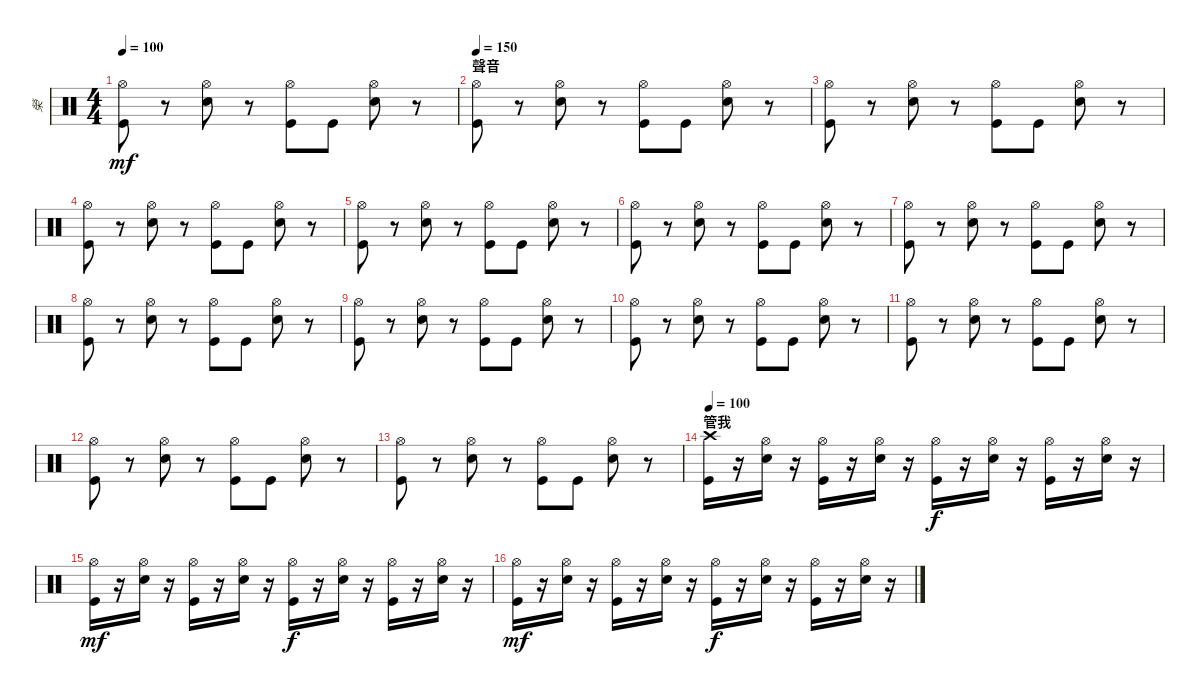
\track ("榮" "榮") {instrument percussion}
\staff {score}
\articulation defaults
\ts (4 4)
\tempo 100
\clef neutral
\ks c
("Hi-Hat (open)" "Kick (hit)").8{dy mf} r.8 ("Hi-Hat (open)" "Snare (hit) 2").8 r.8 ("Hi-Hat (open)" "Kick (hit)").8 "Kick (hit)".8 ("Hi-Hat (open)" "Snare (hit) 2").8 r.8 |
\section ("" "聲音")
\tempo 150
("Hi-Hat (open)" "Kick (hit)").8 r.8 ("Hi-Hat (open)" "Snare (hit) 2").8 r.8 ("Hi-Hat (open)" "Kick (hit)").8 "Kick (hit)".8 ("Hi-Hat (open)" "Snare (hit) 2").8 r.8 |
("Hi-Hat (open)" "Kick (hit)").8 r.8 ("Hi-Hat (open)" "Snare (hit) 2").8 r.8 ("Hi-Hat (open)" "Kick (hit)").8 "Kick (hit)".8 ("Hi-Hat (open)" "Snare (hit) 2").8 r.8 |
("Hi-Hat (open)" "Kick (hit)").8 r.8 ("Hi-Hat (open)" "Snare (hit) 2").8 r.8 ("Hi-Hat (open)" "Kick (hit)").8 "Kick (hit)".8 ("Hi-Hat (open)" "Snare (hit) 2").8 r.8 |
("Hi-Hat (open)" "Kick (hit)").8 r.8 ("Hi-Hat (open)" "Snare (hit) 2").8 r.8 ("Hi-Hat (open)" "Kick (hit)").8 "Kick (hit)".8 ("Hi-Hat (open)" "Snare (hit) 2").8 r.8 |
("Hi-Hat (open)" "Kick (hit)").8 r.8 ("Hi-Hat (open)" "Snare (hit) 2").8 r.8 ("Hi-Hat (open)" "Kick (hit)").8 "Kick (hit)".8 ("Hi-Hat (open)" "Snare (hit) 2").8 r.8 |
("Hi-Hat (open)" "Kick (hit)").8 r.8 ("Hi-Hat (open)" "Snare (hit) 2").8 r.8 ("Hi-Hat (open)" "Kick (hit)").8 "Kick (hit)".8 ("Hi-Hat (open)" "Snare (hit) 2").8 r.8 |
("Hi-Hat (open)" "Kick (hit)").8 r.8 ("Hi-Hat (open)" "Snare (hit) 2").8 r.8 ("Hi-Hat (open)" "Kick (hit)").8 "Kick (hit)".8 ("Hi-Hat (open)" "Snare (hit) 2").8 r.8 |
("Hi-Hat (open)" "Kick (hit)").8 r.8 ("Hi-Hat (open)" "Snare (hit) 2").8 r.8 ("Hi-Hat (open)" "Kick (hit)").8 "Kick (hit)".8 ("Hi-Hat (open)" "Snare (hit) 2").8 r.8 |
("Hi-Hat (open)" "Kick (hit)").8 r.8 ("Hi-Hat (open)" "Snare (hit) 2").8 r.8 ("Hi-Hat (open)" "Kick (hit)").8 "Kick (hit)".8 ("Hi-Hat (open)" "Snare (hit) 2").8 r.8 |
("Hi-Hat (open)" "Kick (hit)").8 r.8 ("Hi-Hat (open)" "Snare (hit) 2").8 r.8 ("Hi-Hat (open)" "Kick (hit)").8 "Kick (hit)".8 ("Hi-Hat (open)" "Snare (hit) 2").8 r.8 |
("Hi-Hat (open)" "Kick (hit)").8 r.8 ("Hi-Hat (open)" "Snare (hit) 2").8 r.8 ("Hi-Hat (open)" "Kick (hit)").8 "Kick (hit)".8 ("Hi-Hat (open)" "Snare (hit) 2").8 r.8 |
("Hi-Hat (open)" "Kick (hit)").8 r.8 ("Hi-Hat (open)" "Snare (hit) 2").8 r.8 ("Hi-Hat (open)" "Kick (hit)").8 "Kick (hit)".8 ("Hi-Hat (open)" "Snare (hit) 2").8 r.8 |
\section ("" "管我")
\tempo 100
("Crash high (hit)" "Kick (hit)").16 r.16 ("Hi-Hat (open)" "Snare (hit) 2").16 r.16 ("Hi-Hat (open)" "Kick (hit)").16 r.16 ("Hi-Hat (open)" "Snare (hit) 2").16 r.16 ("Hi-Hat (open)" "Kick (hit)").16{dy f} r.16 ("Hi-Hat (open)" "Snare (hit) 2").16 r.16 ("Hi-Hat (open)" "Kick (hit)").16 r.16 ("Hi-Hat (open)" "Snare (hit) 2").16 r.16 |
("Hi-Hat (open)" "Kick (hit)").16{dy mf} r.16 ("Hi-Hat (open)" "Snare (hit) 2").16 r.16 ("Hi-Hat (open)" "Kick (hit)").16 r.16 ("Hi-Hat (open)" "Snare (hit) 2").16 r.16 ("Hi-Hat (open)" "Kick (hit)").16{dy f} r.16 ("Hi-Hat (open)" "Snare (hit) 2").16 r.16 ("Hi-Hat (open)" "Kick (hit)").16 r.16 ("Hi-Hat (open)" "Snare (hit) 2").16 r.16 |
("Hi-Hat (open)" "Kick (hit)").16{dy mf} r.16 ("Hi-Hat (open)" "Snare (hit) 2").16 r.16 ("Hi-Hat (open)" "Kick (hit)").16 r.16 ("Hi-Hat (open)" "Snare (hit) 2").16 r.16 ("Hi-Hat (open)" "Kick (hit)").16{dy f} r.16 ("Hi-Hat (open)" "Snare (hit) 2").16 r.16 ("Hi-Hat (open)" "Kick (hit)").16 r.16 ("Hi-Hat (open)" "Snare (hit) 2").16 r.16
